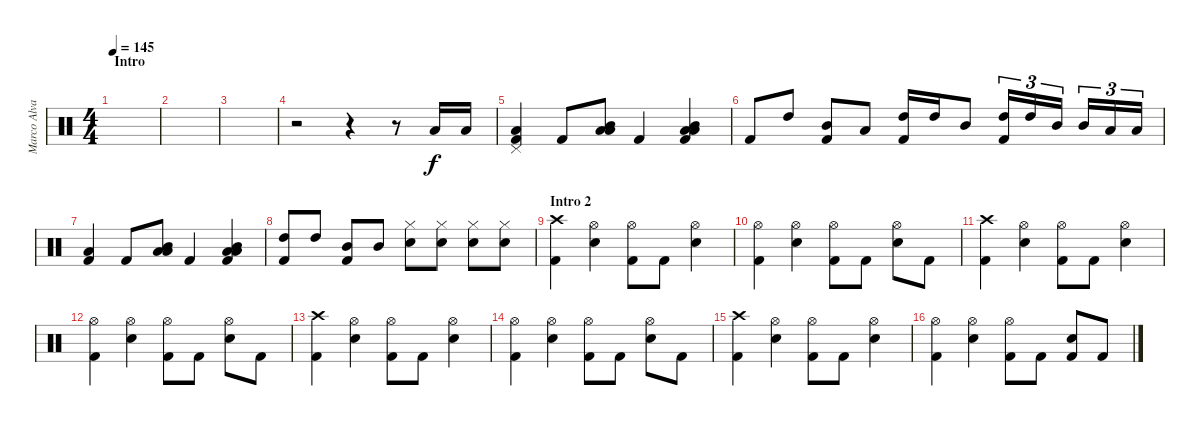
\track ("Marco Alvarez" "Marco Alva") {instrument percussion}
\staff {score}
\articulation defaults
\ts (4 4)
\section ("" "Intro")
\tempo 145
\clef neutral
\ks c
|
|
|
r.2 r.4 r.8 "Low Tom (hit)".16 "Low Tom (hit)".16 |
("Kick (hit) 2" "Low Tom (hit)" "Pedal Hi-Hat (hit)").4 "Kick (hit) 2".8 ("Low Tom (hit)" "Mid Tom (hit)" "Low Tom (hit)").8 "Kick (hit) 2".4 ("Kick (hit) 2" "Low Tom (hit)" "Mid Tom (hit)" "Low Tom (hit)").4 |
"Kick (hit) 2".8 "High Tom (hit)".8 ("Kick (hit) 2" "Mid Tom (hit)").8 "Low Tom (hit)".8 ("Kick (hit) 2" "High Tom (hit)").16 "High Tom (hit)".16 "Mid Tom (hit)".8 ("Kick (hit) 2" "High Tom (hit)").16{tu (3 2)} "High Tom (hit)".16{tu (3 2)} "Mid Tom (hit)".16{tu (3 2)} "Mid Tom (hit)".16{tu (3 2)} "Low Tom (hit)".16{tu (3 2)} "Low Tom (hit)".16{tu (3 2)} |
("Kick (hit) 2" "Low Tom (hit)").4 "Kick (hit) 2".8 ("Low Tom (hit)" "Mid Tom (hit)" "Low Tom (hit)").8 "Kick (hit) 2".4 ("Kick (hit) 2" "Low Tom (hit)" "Mid Tom (hit)" "Low Tom (hit)").4 |
("Kick (hit) 2" "High Tom (hit)").8 "High Tom (hit)".8 ("Kick (hit) 2" "Mid Tom (hit)").8 "Mid Tom (hit)".8 ("Electric Snare (hit)" "Hi-Hat (closed)").8 ("Electric Snare (hit)" "Hi-Hat (closed)").8 ("Electric Snare (hit)" "Hi-Hat (closed)").8 ("Electric Snare (hit)" "Hi-Hat (closed)").8 |
\section ("" "Intro 2")
("Kick (hit) 2" "Crash high (hit)").4 ("Electric Snare (hit)" "Hi-Hat (open)").4 ("Kick (hit) 2" "Hi-Hat (open)").8 "Kick (hit) 2".8 ("Electric Snare (hit)" "Hi-Hat (open)").4 |
("Kick (hit) 2" "Hi-Hat (open)").4 ("Electric Snare (hit)" "Hi-Hat (open)").4 ("Kick (hit) 2" "Hi-Hat (open)").8 "Kick (hit) 2".8 ("Electric Snare (hit)" "Hi-Hat (open)").8 "Kick (hit) 2".8 |
("Kick (hit) 2" "Crash high (hit)").4 ("Electric Snare (hit)" "Hi-Hat (open)").4 ("Kick (hit) 2" "Hi-Hat (open)").8 "Kick (hit) 2".8 ("Electric Snare (hit)" "Hi-Hat (open)").4 |
("Kick (hit) 2" "Hi-Hat (open)").4 ("Electric Snare (hit)" "Hi-Hat (open)").4 ("Kick (hit) 2" "Hi-Hat (open)").8 "Kick (hit) 2".8 ("Electric Snare (hit)" "Hi-Hat (open)").8 "Kick (hit) 2".8 |
("Kick (hit) 2" "Crash high (hit)").4 ("Electric Snare (hit)" "Hi-Hat (open)").4 ("Kick (hit) 2" "Hi-Hat (open)").8 "Kick (hit) 2".8 ("Electric Snare (hit)" "Hi-Hat (open)").4 |
("Kick (hit) 2" "Hi-Hat (open)").4 ("Electric Snare (hit)" "Hi-Hat (open)").4 ("Kick (hit) 2" "Hi-Hat (open)").8 "Kick (hit) 2".8 ("Electric Snare (hit)" "Hi-Hat (open)").8 "Kick (hit) 2".8 |
("Kick (hit) 2" "Crash high (hit)").4 ("Electric Snare (hit)" "Hi-Hat (open)").4 ("Kick (hit) 2" "Hi-Hat (open)").8 "Kick (hit) 2".8 ("Electric Snare (hit)" "Hi-Hat (open)").4 |
("Kick (hit) 2" "Hi-Hat (open)").4 ("Electric Snare (hit)" "Hi-Hat (open)").4 ("Kick (hit) 2" "Hi-Hat (open)").8 "Kick (hit) 2".8 ("Kick (hit) 2" "Electric Snare (hit)").8 "Kick (hit) 2".8
